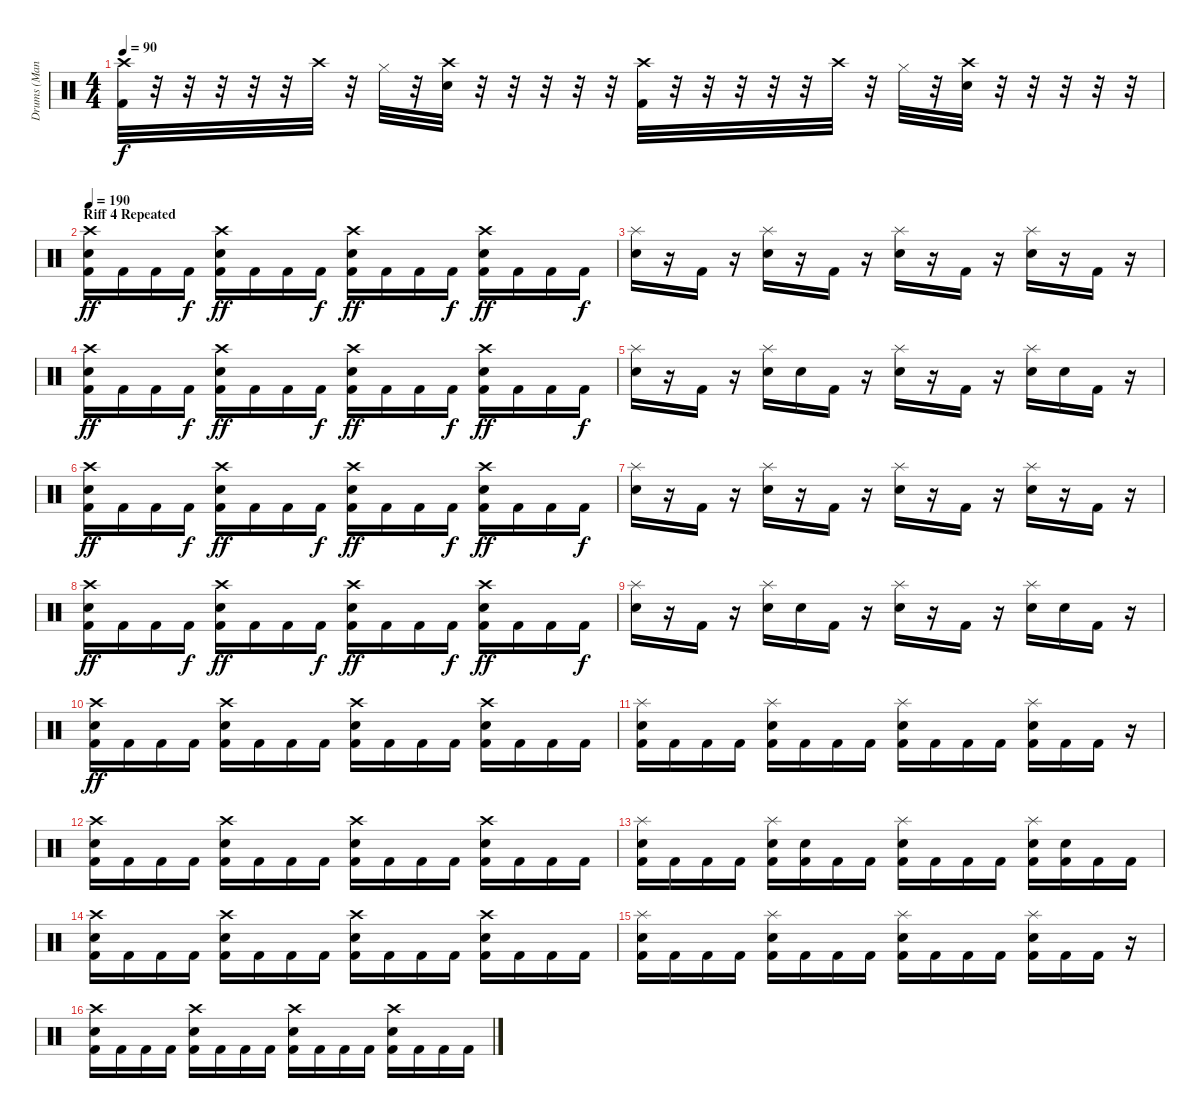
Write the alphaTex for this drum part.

\track ("Drums (Mancino)" "Drums (Man") {instrument percussion}
\staff {score}
\articulation defaults
\ts (4 4)
\tempo 90
\clef neutral
\ks c
("Crash high (hit)" "Kick (hit) 2").32{dy f} r.32 r.32 r.32 r.32 r.32 "Crash high (hit)".32 r.32 "Hi-Hat (closed)".32 r.32 ("Crash high (hit)" "Electric Snare (hit)").32 r.32 r.32 r.32 r.32 r.32 ("Crash high (hit)" "Kick (hit) 2").32 r.32 r.32 r.32 r.32 r.32 "Crash high (hit)".32 r.32 "Hi-Hat (closed)".32 r.32 ("Crash high (hit)" "Electric Snare (hit)").32 r.32 r.32 r.32 r.32 r.32 |
\section ("" "Riff 4 Repeated")
\tempo 190
("Crash high (hit)" "Electric Snare (hit)" "Kick (hit) 2").16{dy ff} "Kick (hit) 2".16 "Kick (hit) 2".16 "Kick (hit) 2".16{dy f} ("Crash high (hit)" "Electric Snare (hit)" "Kick (hit) 2").16{dy ff} "Kick (hit) 2".16 "Kick (hit) 2".16 "Kick (hit) 2".16{dy f} ("Crash high (hit)" "Electric Snare (hit)" "Kick (hit) 2").16{dy ff} "Kick (hit) 2".16 "Kick (hit) 2".16 "Kick (hit) 2".16{dy f} ("Crash high (hit)" "Electric Snare (hit)" "Kick (hit) 2").16{dy ff} "Kick (hit) 2".16 "Kick (hit) 2".16 "Kick (hit) 2".16{dy f} |
("Splash (hit)" "Electric Snare (hit)").16 r.16 "Kick (hit) 2".16 r.16 ("Splash (hit)" "Electric Snare (hit)").16 r.16 "Kick (hit) 2".16 r.16 ("Splash (hit)" "Electric Snare (hit)").16 r.16 "Kick (hit) 2".16 r.16 ("Splash (hit)" "Electric Snare (hit)").16 r.16 "Kick (hit) 2".16 r.16 |
("Crash high (hit)" "Electric Snare (hit)" "Kick (hit) 2").16{dy ff} "Kick (hit) 2".16 "Kick (hit) 2".16 "Kick (hit) 2".16{dy f} ("Crash high (hit)" "Electric Snare (hit)" "Kick (hit) 2").16{dy ff} "Kick (hit) 2".16 "Kick (hit) 2".16 "Kick (hit) 2".16{dy f} ("Crash high (hit)" "Electric Snare (hit)" "Kick (hit) 2").16{dy ff} "Kick (hit) 2".16 "Kick (hit) 2".16 "Kick (hit) 2".16{dy f} ("Crash high (hit)" "Electric Snare (hit)" "Kick (hit) 2").16{dy ff} "Kick (hit) 2".16 "Kick (hit) 2".16 "Kick (hit) 2".16{dy f} |
("Splash (hit)" "Electric Snare (hit)").16 r.16 "Kick (hit) 2".16 r.16 ("Splash (hit)" "Electric Snare (hit)").16 "Electric Snare (hit)".16 "Kick (hit) 2".16 r.16 ("Splash (hit)" "Electric Snare (hit)").16 r.16 "Kick (hit) 2".16 r.16 ("Splash (hit)" "Electric Snare (hit)").16 "Electric Snare (hit)".16 "Kick (hit) 2".16 r.16 |
("Crash high (hit)" "Electric Snare (hit)" "Kick (hit) 2").16{dy ff} "Kick (hit) 2".16 "Kick (hit) 2".16 "Kick (hit) 2".16{dy f} ("Crash high (hit)" "Electric Snare (hit)" "Kick (hit) 2").16{dy ff} "Kick (hit) 2".16 "Kick (hit) 2".16 "Kick (hit) 2".16{dy f} ("Crash high (hit)" "Electric Snare (hit)" "Kick (hit) 2").16{dy ff} "Kick (hit) 2".16 "Kick (hit) 2".16 "Kick (hit) 2".16{dy f} ("Crash high (hit)" "Electric Snare (hit)" "Kick (hit) 2").16{dy ff} "Kick (hit) 2".16 "Kick (hit) 2".16 "Kick (hit) 2".16{dy f} |
("Splash (hit)" "Electric Snare (hit)").16 r.16 "Kick (hit) 2".16 r.16 ("Splash (hit)" "Electric Snare (hit)").16 r.16 "Kick (hit) 2".16 r.16 ("Splash (hit)" "Electric Snare (hit)").16 r.16 "Kick (hit) 2".16 r.16 ("Splash (hit)" "Electric Snare (hit)").16 r.16 "Kick (hit) 2".16 r.16 |
("Crash high (hit)" "Electric Snare (hit)" "Kick (hit) 2").16{dy ff} "Kick (hit) 2".16 "Kick (hit) 2".16 "Kick (hit) 2".16{dy f} ("Crash high (hit)" "Electric Snare (hit)" "Kick (hit) 2").16{dy ff} "Kick (hit) 2".16 "Kick (hit) 2".16 "Kick (hit) 2".16{dy f} ("Crash high (hit)" "Electric Snare (hit)" "Kick (hit) 2").16{dy ff} "Kick (hit) 2".16 "Kick (hit) 2".16 "Kick (hit) 2".16{dy f} ("Crash high (hit)" "Electric Snare (hit)" "Kick (hit) 2").16{dy ff} "Kick (hit) 2".16 "Kick (hit) 2".16 "Kick (hit) 2".16{dy f} |
("Splash (hit)" "Electric Snare (hit)").16 r.16 "Kick (hit) 2".16 r.16 ("Splash (hit)" "Electric Snare (hit)").16 "Electric Snare (hit)".16 "Kick (hit) 2".16 r.16 ("Splash (hit)" "Electric Snare (hit)").16 r.16 "Kick (hit) 2".16 r.16 ("Splash (hit)" "Electric Snare (hit)").16 "Electric Snare (hit)".16 "Kick (hit) 2".16 r.16 |
("Crash high (hit)" "Electric Snare (hit)" "Kick (hit) 2").16{dy ff} "Kick (hit) 2".16 "Kick (hit) 2".16 "Kick (hit) 2".16 ("Crash high (hit)" "Electric Snare (hit)" "Kick (hit) 2").16 "Kick (hit) 2".16 "Kick (hit) 2".16 "Kick (hit) 2".16 ("Crash high (hit)" "Electric Snare (hit)" "Kick (hit) 2").16 "Kick (hit) 2".16 "Kick (hit) 2".16 "Kick (hit) 2".16 ("Crash high (hit)" "Electric Snare (hit)" "Kick (hit) 2").16 "Kick (hit) 2".16 "Kick (hit) 2".16 "Kick (hit) 2".16 |
("Splash (hit)" "Electric Snare (hit)" "Kick (hit) 2").16 "Kick (hit) 2".16 "Kick (hit) 2".16 "Kick (hit) 2".16 ("Splash (hit)" "Electric Snare (hit)" "Kick (hit) 2").16 "Kick (hit) 2".16 "Kick (hit) 2".16 "Kick (hit) 2".16 ("Splash (hit)" "Electric Snare (hit)" "Kick (hit) 2").16 "Kick (hit) 2".16 "Kick (hit) 2".16 "Kick (hit) 2".16 ("Splash (hit)" "Electric Snare (hit)" "Kick (hit) 2").16 "Kick (hit) 2".16 "Kick (hit) 2".16 r.16 |
("Crash high (hit)" "Electric Snare (hit)" "Kick (hit) 2").16 "Kick (hit) 2".16 "Kick (hit) 2".16 "Kick (hit) 2".16 ("Crash high (hit)" "Electric Snare (hit)" "Kick (hit) 2").16 "Kick (hit) 2".16 "Kick (hit) 2".16 "Kick (hit) 2".16 ("Crash high (hit)" "Electric Snare (hit)" "Kick (hit) 2").16 "Kick (hit) 2".16 "Kick (hit) 2".16 "Kick (hit) 2".16 ("Crash high (hit)" "Electric Snare (hit)" "Kick (hit) 2").16 "Kick (hit) 2".16 "Kick (hit) 2".16 "Kick (hit) 2".16 |
("Splash (hit)" "Electric Snare (hit)" "Kick (hit) 2").16 "Kick (hit) 2".16 "Kick (hit) 2".16 "Kick (hit) 2".16 ("Splash (hit)" "Electric Snare (hit)" "Kick (hit) 2").16 ("Electric Snare (hit)" "Kick (hit) 2").16 "Kick (hit) 2".16 "Kick (hit) 2".16 ("Splash (hit)" "Electric Snare (hit)" "Kick (hit) 2").16 "Kick (hit) 2".16 "Kick (hit) 2".16 "Kick (hit) 2".16 ("Splash (hit)" "Electric Snare (hit)" "Kick (hit) 2").16 ("Electric Snare (hit)" "Kick (hit) 2").16 "Kick (hit) 2".16 "Kick (hit) 2".16 |
("Crash high (hit)" "Electric Snare (hit)" "Kick (hit) 2").16 "Kick (hit) 2".16 "Kick (hit) 2".16 "Kick (hit) 2".16 ("Crash high (hit)" "Electric Snare (hit)" "Kick (hit) 2").16 "Kick (hit) 2".16 "Kick (hit) 2".16 "Kick (hit) 2".16 ("Crash high (hit)" "Electric Snare (hit)" "Kick (hit) 2").16 "Kick (hit) 2".16 "Kick (hit) 2".16 "Kick (hit) 2".16 ("Crash high (hit)" "Electric Snare (hit)" "Kick (hit) 2").16 "Kick (hit) 2".16 "Kick (hit) 2".16 "Kick (hit) 2".16 |
("Splash (hit)" "Electric Snare (hit)" "Kick (hit) 2").16 "Kick (hit) 2".16 "Kick (hit) 2".16 "Kick (hit) 2".16 ("Splash (hit)" "Electric Snare (hit)" "Kick (hit) 2").16 "Kick (hit) 2".16 "Kick (hit) 2".16 "Kick (hit) 2".16 ("Splash (hit)" "Electric Snare (hit)" "Kick (hit) 2").16 "Kick (hit) 2".16 "Kick (hit) 2".16 "Kick (hit) 2".16 ("Splash (hit)" "Electric Snare (hit)" "Kick (hit) 2").16 "Kick (hit) 2".16 "Kick (hit) 2".16 r.16 |
("Crash high (hit)" "Electric Snare (hit)" "Kick (hit) 2").16 "Kick (hit) 2".16 "Kick (hit) 2".16 "Kick (hit) 2".16 ("Crash high (hit)" "Electric Snare (hit)" "Kick (hit) 2").16 "Kick (hit) 2".16 "Kick (hit) 2".16 "Kick (hit) 2".16 ("Crash high (hit)" "Electric Snare (hit)" "Kick (hit) 2").16 "Kick (hit) 2".16 "Kick (hit) 2".16 "Kick (hit) 2".16 ("Crash high (hit)" "Electric Snare (hit)" "Kick (hit) 2").16 "Kick (hit) 2".16 "Kick (hit) 2".16 "Kick (hit) 2".16
